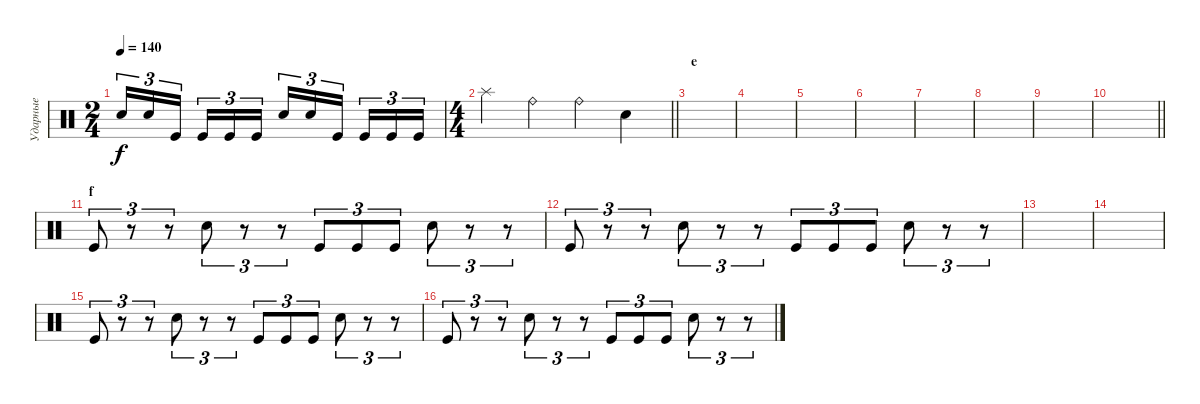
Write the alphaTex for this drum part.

\track ("Ударные" "Ударные") {instrument percussion}
\staff {score}
\articulation defaults
\ts (2 4)
\section ("" "")
\tempo 140
\clef neutral
\ks c "Electric Snare (hit)".16{tu (3 2) dy f} "Electric Snare (hit)".16{tu (3 2)} "Kick (hit)".16{tu (3 2) beam splitsecondary} "Kick (hit)".16{tu (3 2)} "Kick (hit)".16{tu (3 2)} "Kick (hit)".16{tu (3 2)} "Electric Snare (hit)".16{tu (3 2)} "Electric Snare (hit)".16{tu (3 2)} "Kick (hit)".16{tu (3 2) beam splitsecondary} "Kick (hit)".16{tu (3 2)} "Kick (hit)".16{tu (3 2)} "Kick (hit)".16{tu (3 2)}
|
\ts (4 4)
\barLineRight lightlight "Splash (hit)".4 "Ride (bell)".4 "Ride (bell)".4 "Electric Snare (hit)".4
|
\section ("" "e")
|
|
|
|
|
|
|
\barLineRight lightlight
|
\section ("" "f")
"Kick (hit)".8{tu (3 2)} r.8{tu (3 2)} r.8{tu (3 2)} "Electric Snare (hit)".8{tu (3 2)} r.8{tu (3 2)} r.8{tu (3 2)} "Kick (hit)".8{tu (3 2)} "Kick (hit)".8{tu (3 2)} "Kick (hit)".8{tu (3 2)} "Electric Snare (hit)".8{tu (3 2)} r.8{tu (3 2)} r.8{tu (3 2)} |
"Kick (hit)".8{tu (3 2)} r.8{tu (3 2)} r.8{tu (3 2)} "Electric Snare (hit)".8{tu (3 2)} r.8{tu (3 2)} r.8{tu (3 2)} "Kick (hit)".8{tu (3 2)} "Kick (hit)".8{tu (3 2)} "Kick (hit)".8{tu (3 2)} "Electric Snare (hit)".8{tu (3 2)} r.8{tu (3 2)} r.8{tu (3 2)} |
|
|
"Kick (hit)".8{tu (3 2)} r.8{tu (3 2)} r.8{tu (3 2)} "Electric Snare (hit)".8{tu (3 2)} r.8{tu (3 2)} r.8{tu (3 2)} "Kick (hit)".8{tu (3 2)} "Kick (hit)".8{tu (3 2)} "Kick (hit)".8{tu (3 2)} "Electric Snare (hit)".8{tu (3 2)} r.8{tu (3 2)} r.8{tu (3 2)} |
"Kick (hit)".8{tu (3 2)} r.8{tu (3 2)} r.8{tu (3 2)} "Electric Snare (hit)".8{tu (3 2)} r.8{tu (3 2)} r.8{tu (3 2)} "Kick (hit)".8{tu (3 2)} "Kick (hit)".8{tu (3 2)} "Kick (hit)".8{tu (3 2)} "Electric Snare (hit)".8{tu (3 2)} r.8{tu (3 2)} r.8{tu (3 2)}
